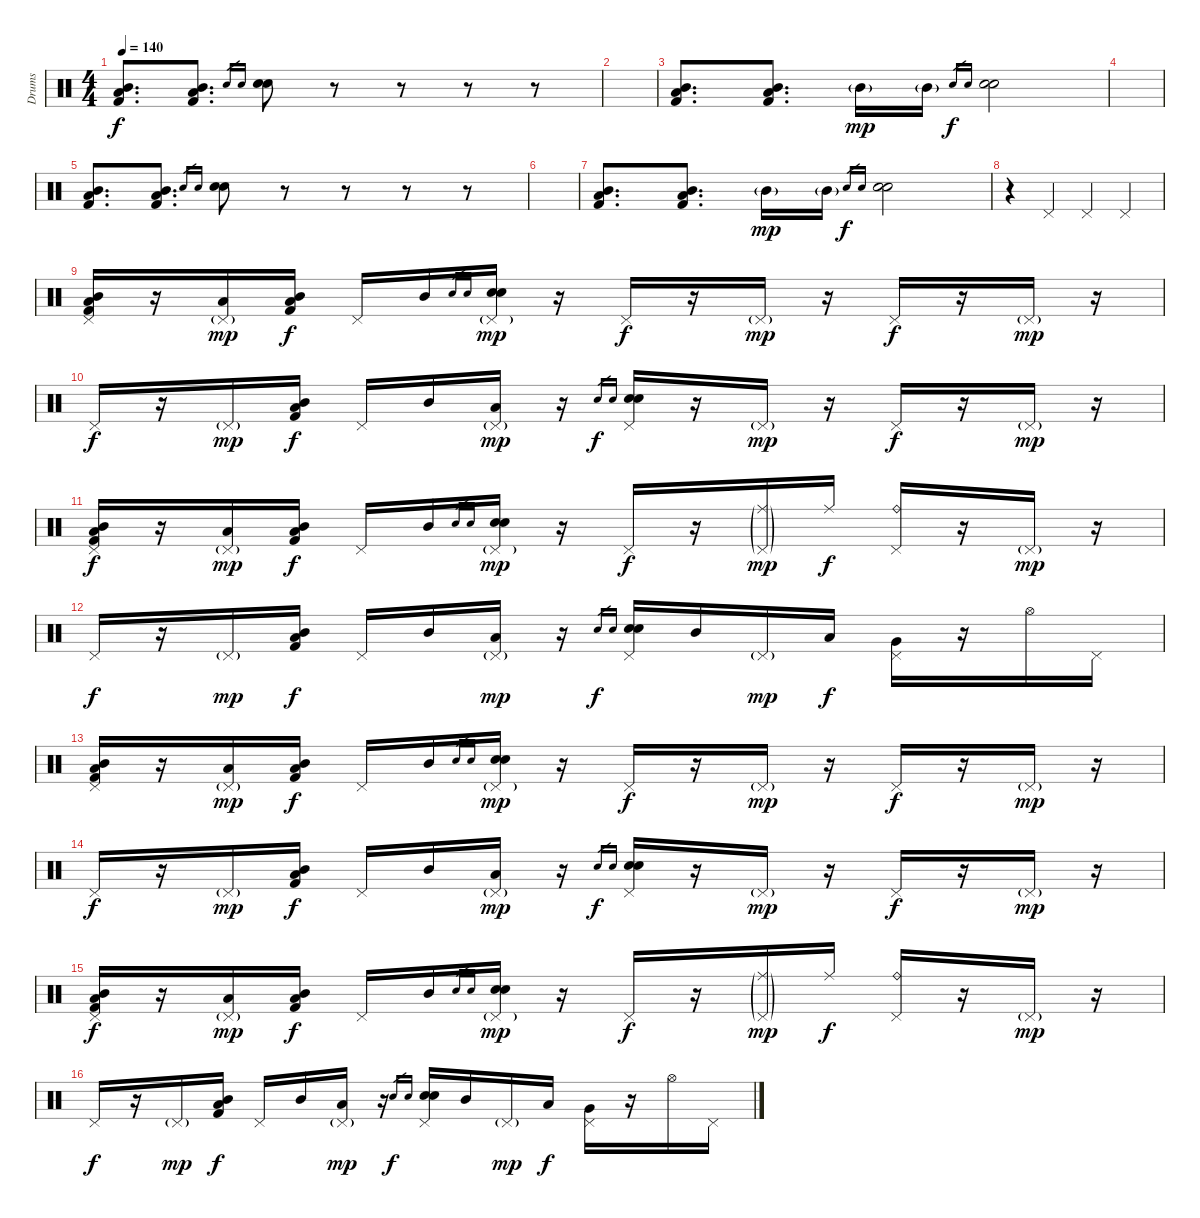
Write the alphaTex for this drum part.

\track ("Drums" "Drums") {instrument percussion}
\staff {score}
\articulation defaults
\ts (4 4)
\tempo 140
\clef neutral
\ks c
("Low Tom (hit)" "Mid Tom (hit)" "Kick (hit) 2").8{d dy f} ("Low Tom (hit)" "Mid Tom (hit)" "Kick (hit) 2").8{d} "Electric Snare (hit)".16{gr} "Electric Snare (hit)".16{gr} ("Electric Snare (hit)" "Electric Snare (hit)").8 r.8 r.8 r.8 r.8 |
|
("Low Tom (hit)" "Mid Tom (hit)" "Kick (hit) 2").8{d} ("Low Tom (hit)" "Mid Tom (hit)" "Kick (hit) 2").8{d} "Mid Tom (hit)"{g}.16{dy mp} "Mid Tom (hit)"{g}.16 "Electric Snare (hit)".16{gr dy f} "Electric Snare (hit)".16{gr} ("Electric Snare (hit)" "Electric Snare (hit)").2 |
|
("Low Tom (hit)" "Mid Tom (hit)" "Kick (hit) 2").8{d} ("Low Tom (hit)" "Mid Tom (hit)" "Kick (hit) 2").8{d} "Electric Snare (hit)".16{gr} "Electric Snare (hit)".16{gr} ("Electric Snare (hit)" "Electric Snare (hit)").8 r.8 r.8 r.8 r.8 |
|
("Low Tom (hit)" "Mid Tom (hit)" "Kick (hit) 2").8{d} ("Low Tom (hit)" "Mid Tom (hit)" "Kick (hit) 2").8{d} "Mid Tom (hit)"{g}.16{dy mp} "Mid Tom (hit)"{g}.16 "Electric Snare (hit)".16{gr dy f} "Electric Snare (hit)".16{gr} ("Electric Snare (hit)" "Electric Snare (hit)").2 |
r.4 "Pedal Hi-Hat (hit)".4 "Pedal Hi-Hat (hit)".4 "Pedal Hi-Hat (hit)".4 |
("Pedal Hi-Hat (hit)" "Low Tom (hit)" "Mid Tom (hit)" "Kick (hit) 2").16 r.16 ("Pedal Hi-Hat (hit)"{g} "Low Tom (hit)").16{dy mp} ("Low Tom (hit)" "Mid Tom (hit)" "Kick (hit) 2").16{dy f} "Pedal Hi-Hat (hit)".16 "Mid Tom (hit)".16 "Electric Snare (hit)".16{gr} "Electric Snare (hit)".16{gr} ("Pedal Hi-Hat (hit)"{g} "Electric Snare (hit)" "Electric Snare (hit)").16{dy mp} r.16 "Pedal Hi-Hat (hit)".16{dy f} r.16 "Pedal Hi-Hat (hit)"{g}.16{dy mp} r.16 "Pedal Hi-Hat (hit)".16{dy f} r.16 "Pedal Hi-Hat (hit)"{g}.16{dy mp} r.16 |
"Pedal Hi-Hat (hit)".16{dy f} r.16 "Pedal Hi-Hat (hit)"{g}.16{dy mp} ("Low Tom (hit)" "Mid Tom (hit)" "Kick (hit) 2").16{dy f} "Pedal Hi-Hat (hit)".16 "Mid Tom (hit)".16 ("Pedal Hi-Hat (hit)"{g} "Low Tom (hit)").16{dy mp} r.16 "Electric Snare (hit)".16{gr dy f} "Electric Snare (hit)".16{gr} ("Pedal Hi-Hat (hit)" "Electric Snare (hit)" "Electric Snare (hit)").16 r.16 "Pedal Hi-Hat (hit)"{g}.16{dy mp} r.16 "Pedal Hi-Hat (hit)".16{dy f} r.16 "Pedal Hi-Hat (hit)"{g}.16{dy mp} r.16 |
("Pedal Hi-Hat (hit)" "Low Tom (hit)" "Mid Tom (hit)" "Kick (hit) 2").16{dy f} r.16 ("Pedal Hi-Hat (hit)"{g} "Low Tom (hit)").16{dy mp} ("Low Tom (hit)" "Mid Tom (hit)" "Kick (hit) 2").16{dy f} "Pedal Hi-Hat (hit)".16 "Mid Tom (hit)".16 "Electric Snare (hit)".16{gr} "Electric Snare (hit)".16{gr} ("Pedal Hi-Hat (hit)"{g} "Electric Snare (hit)" "Electric Snare (hit)").16{dy mp} r.16 "Pedal Hi-Hat (hit)".16{dy f} r.16 ("Pedal Hi-Hat (hit)"{g} "Ride (middle)"{g}).16{dy mp} "Ride (middle)".16{dy f} ("Pedal Hi-Hat (hit)" "Ride (bell)").16 r.16 "Pedal Hi-Hat (hit)"{g}.16{dy mp} r.16 |
"Pedal Hi-Hat (hit)".16{dy f} r.16 "Pedal Hi-Hat (hit)"{g}.16{dy mp} ("Low Tom (hit)" "Mid Tom (hit)" "Kick (hit) 2").16{dy f} "Pedal Hi-Hat (hit)".16 "Mid Tom (hit)".16 ("Pedal Hi-Hat (hit)"{g} "Low Tom (hit)").16{dy mp} r.16 "Electric Snare (hit)".16{gr dy f} "Electric Snare (hit)".16{gr} ("Pedal Hi-Hat (hit)" "Electric Snare (hit)" "Electric Snare (hit)").16 "Mid Tom (hit)".16 "Pedal Hi-Hat (hit)"{g}.16{dy mp} "Low Tom (hit)".16{dy f} ("Pedal Hi-Hat (hit)" "Very Low Tom (hit)").16 r.16 "Hi-Hat (open)".16 "Pedal Hi-Hat (hit)".16 |
("Pedal Hi-Hat (hit)" "Low Tom (hit)" "Mid Tom (hit)" "Kick (hit) 2").16 r.16 ("Pedal Hi-Hat (hit)"{g} "Low Tom (hit)").16{dy mp} ("Low Tom (hit)" "Mid Tom (hit)" "Kick (hit) 2").16{dy f} "Pedal Hi-Hat (hit)".16 "Mid Tom (hit)".16 "Electric Snare (hit)".16{gr} "Electric Snare (hit)".16{gr} ("Pedal Hi-Hat (hit)"{g} "Electric Snare (hit)" "Electric Snare (hit)").16{dy mp} r.16 "Pedal Hi-Hat (hit)".16{dy f} r.16 "Pedal Hi-Hat (hit)"{g}.16{dy mp} r.16 "Pedal Hi-Hat (hit)".16{dy f} r.16 "Pedal Hi-Hat (hit)"{g}.16{dy mp} r.16 |
"Pedal Hi-Hat (hit)".16{dy f} r.16 "Pedal Hi-Hat (hit)"{g}.16{dy mp} ("Low Tom (hit)" "Mid Tom (hit)" "Kick (hit) 2").16{dy f} "Pedal Hi-Hat (hit)".16 "Mid Tom (hit)".16 ("Pedal Hi-Hat (hit)"{g} "Low Tom (hit)").16{dy mp} r.16 "Electric Snare (hit)".16{gr dy f} "Electric Snare (hit)".16{gr} ("Pedal Hi-Hat (hit)" "Electric Snare (hit)" "Electric Snare (hit)").16 r.16 "Pedal Hi-Hat (hit)"{g}.16{dy mp} r.16 "Pedal Hi-Hat (hit)".16{dy f} r.16 "Pedal Hi-Hat (hit)"{g}.16{dy mp} r.16 |
("Pedal Hi-Hat (hit)" "Low Tom (hit)" "Mid Tom (hit)" "Kick (hit) 2").16{dy f} r.16 ("Pedal Hi-Hat (hit)"{g} "Low Tom (hit)").16{dy mp} ("Low Tom (hit)" "Mid Tom (hit)" "Kick (hit) 2").16{dy f} "Pedal Hi-Hat (hit)".16 "Mid Tom (hit)".16 "Electric Snare (hit)".16{gr} "Electric Snare (hit)".16{gr} ("Pedal Hi-Hat (hit)"{g} "Electric Snare (hit)" "Electric Snare (hit)").16{dy mp} r.16 "Pedal Hi-Hat (hit)".16{dy f} r.16 ("Pedal Hi-Hat (hit)"{g} "Ride (middle)"{g}).16{dy mp} "Ride (middle)".16{dy f} ("Pedal Hi-Hat (hit)" "Ride (bell)").16 r.16 "Pedal Hi-Hat (hit)"{g}.16{dy mp} r.16 |
"Pedal Hi-Hat (hit)".16{dy f} r.16 "Pedal Hi-Hat (hit)"{g}.16{dy mp} ("Low Tom (hit)" "Mid Tom (hit)" "Kick (hit) 2").16{dy f} "Pedal Hi-Hat (hit)".16 "Mid Tom (hit)".16 ("Pedal Hi-Hat (hit)"{g} "Low Tom (hit)").16{dy mp} r.16 "Electric Snare (hit)".16{gr dy f} "Electric Snare (hit)".16{gr} ("Pedal Hi-Hat (hit)" "Electric Snare (hit)" "Electric Snare (hit)").16 "Mid Tom (hit)".16 "Pedal Hi-Hat (hit)"{g}.16{dy mp} "Low Tom (hit)".16{dy f} ("Pedal Hi-Hat (hit)" "Very Low Tom (hit)").16 r.16 "Hi-Hat (open)".16 "Pedal Hi-Hat (hit)".16
